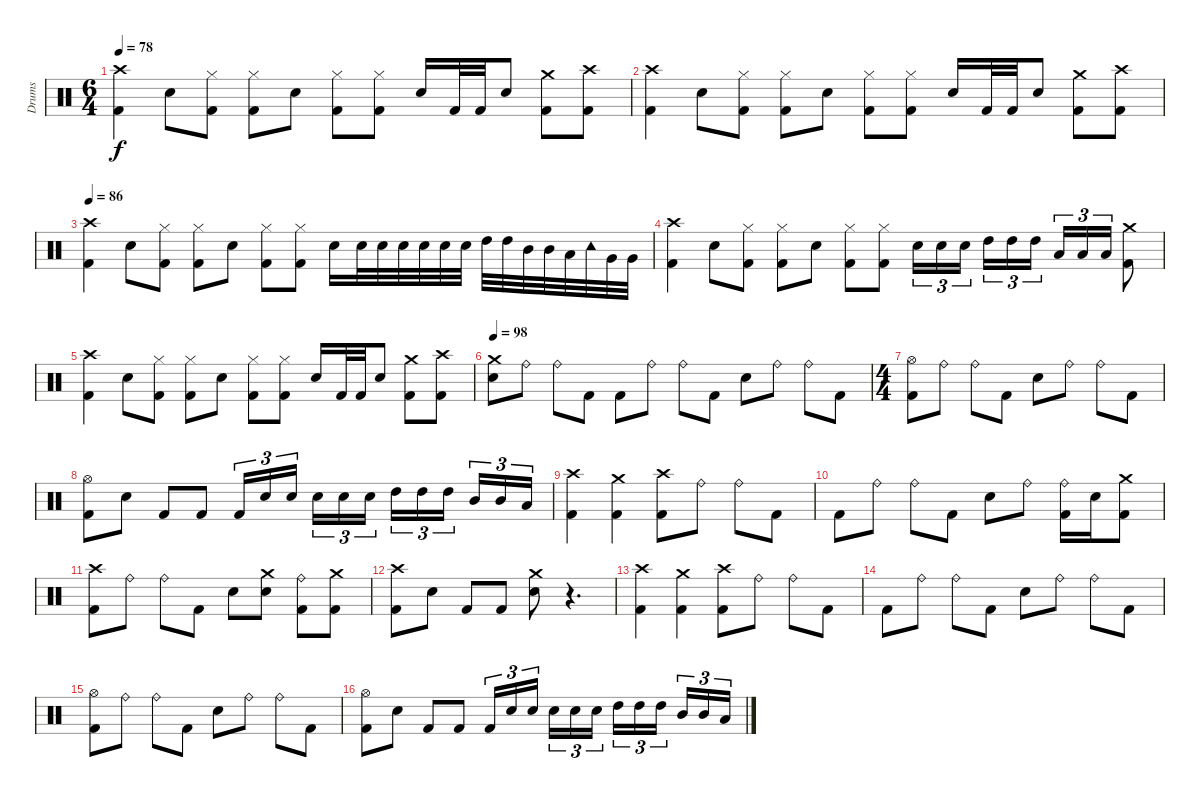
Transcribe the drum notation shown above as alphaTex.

\track ("Drums" "Drums") {instrument percussion}
\staff {score}
\articulation defaults
\ts (6 4)
\tempo 78
\clef neutral
\ks c
("Kick (hit) 2" "Crash high (hit)").4{dy f} "Snare (hit) 2".8 ("Kick (hit) 2" "Hi-Hat (closed)").8 ("Kick (hit) 2" "Hi-Hat (closed)").8 "Snare (hit) 2".8 ("Kick (hit) 2" "Hi-Hat (closed)").8 ("Kick (hit) 2" "Hi-Hat (closed)").8 "Snare (hit) 2".16 "Kick (hit) 2".32 "Kick (hit) 2".32 "Snare (hit) 2".8 ("Kick (hit) 2" "Crash medium (hit)").8 ("Kick (hit) 2" "Crash high (hit)").8 |
("Kick (hit) 2" "Crash high (hit)").4 "Snare (hit) 2".8 ("Kick (hit) 2" "Hi-Hat (closed)").8 ("Kick (hit) 2" "Hi-Hat (closed)").8 "Snare (hit) 2".8 ("Kick (hit) 2" "Hi-Hat (closed)").8 ("Kick (hit) 2" "Hi-Hat (closed)").8 "Snare (hit) 2".16 "Kick (hit) 2".32 "Kick (hit) 2".32 "Snare (hit) 2".8 ("Kick (hit) 2" "Crash medium (hit)").8 ("Kick (hit) 2" "Crash high (hit)").8 |
\tempo 86
("Kick (hit) 2" "Crash high (hit)").4 "Snare (hit) 2".8 ("Kick (hit) 2" "Hi-Hat (closed)").8 ("Kick (hit) 2" "Hi-Hat (closed)").8 "Snare (hit) 2".8 ("Kick (hit) 2" "Hi-Hat (closed)").8 ("Kick (hit) 2" "Hi-Hat (closed)").8 "Snare (hit) 2".16 "Snare (hit) 2".32 "Snare (hit) 2".32 "Snare (hit) 2".32 "Snare (hit) 2".32 "Snare (hit) 2".32 "Snare (hit) 2".32 "High Tom (hit)".32 "High Tom (hit)".32 "Mid Tom (hit)".32 "Mid Tom (hit)".32 "Low Tom (hit)".32 "Tambourine (hit)".32 "Very Low Tom (hit)".32 "Very Low Tom (hit)".32 |
("Kick (hit) 2" "Crash high (hit)").4 "Snare (hit) 2".8 ("Kick (hit) 2" "Hi-Hat (closed)").8 ("Kick (hit) 2" "Hi-Hat (closed)").8 "Snare (hit) 2".8 ("Kick (hit) 2" "Hi-Hat (closed)").8 ("Kick (hit) 2" "Hi-Hat (closed)").8 "Snare (hit) 2".16{tu (3 2)} "Snare (hit) 2".16{tu (3 2)} "Snare (hit) 2".16{tu (3 2)} "High Tom (hit)".16{tu (3 2)} "High Tom (hit)".16{tu (3 2)} "High Tom (hit)".16{tu (3 2)} "Low Tom (hit)".16{tu (3 2)} "Low Tom (hit)".16{tu (3 2)} "Low Tom (hit)".16{tu (3 2)} ("Kick (hit) 2" "Crash medium (hit)").8 |
("Kick (hit) 2" "Crash high (hit)").4 "Snare (hit) 2".8 ("Kick (hit) 2" "Hi-Hat (closed)").8 ("Kick (hit) 2" "Hi-Hat (closed)").8 "Snare (hit) 2".8 ("Kick (hit) 2" "Hi-Hat (closed)").8 ("Kick (hit) 2" "Hi-Hat (closed)").8 "Snare (hit) 2".16 "Kick (hit) 2".32 "Kick (hit) 2".32 "Snare (hit) 2".8 ("Kick (hit) 2" "Crash medium (hit)").8 ("Kick (hit) 2" "Crash high (hit)").8 |
\tempo 98
("Snare (hit) 2" "Crash medium (hit)").8 "Ride (bell)".8 "Ride (bell)".8 "Kick (hit) 2".8 "Kick (hit) 2".8 "Ride (bell)".8 "Ride (bell)".8 "Kick (hit) 2".8 "Snare (hit) 2".8 "Ride (bell)".8 "Ride (bell)".8 "Kick (hit) 2".8 |
\ts (4 4)
("Kick (hit) 2" "Hi-Hat (open)").8 "Ride (bell)".8 "Ride (bell)".8 "Kick (hit) 2".8 "Snare (hit) 2".8 "Ride (bell)".8 "Ride (bell)".8 "Kick (hit) 2".8 |
("Kick (hit) 2" "Hi-Hat (open)").8 "Snare (hit) 2".8 "Kick (hit) 2".8 "Kick (hit) 2".8 "Kick (hit) 2".16{tu (3 2)} "Snare (hit) 2".16{tu (3 2)} "Snare (hit) 2".16{tu (3 2)} "Snare (hit) 2".16{tu (3 2)} "Snare (hit) 2".16{tu (3 2)} "Snare (hit) 2".16{tu (3 2)} "High Tom (hit)".16{tu (3 2)} "High Tom (hit)".16{tu (3 2)} "High Tom (hit)".16{tu (3 2)} "Mid Tom (hit)".16{tu (3 2)} "Mid Tom (hit)".16{tu (3 2)} "Low Tom (hit)".16{tu (3 2)} |
("Kick (hit) 2" "Crash high (hit)").4 ("Kick (hit) 2" "Crash medium (hit)").4 ("Kick (hit) 2" "Crash high (hit)").8 "Ride (bell)".8 "Ride (bell)".8 "Kick (hit) 2".8 |
"Kick (hit) 2".8 "Ride (bell)".8 "Ride (bell)".8 "Kick (hit) 2".8 "Snare (hit) 2".8 "Ride (bell)".8 ("Kick (hit) 2" "Ride (bell)").16 "Snare (hit) 2".16 ("Kick (hit) 2" "Crash medium (hit)").8 |
("Kick (hit) 2" "Crash high (hit)").8 "Ride (bell)".8 "Ride (bell)".8 "Kick (hit) 2".8 "Snare (hit) 2".8 ("Snare (hit) 2" "Crash medium (hit)").8 ("Kick (hit) 2" "Ride (bell)").8 ("Kick (hit) 2" "Crash medium (hit)").8 |
("Kick (hit) 2" "Crash high (hit)").8 "Snare (hit) 2".8 "Kick (hit) 2".8 "Kick (hit) 2".8 ("Snare (hit) 2" "Crash medium (hit)").8 r.4{d} |
("Kick (hit) 2" "Crash high (hit)").4 ("Kick (hit) 2" "Crash medium (hit)").4 ("Kick (hit) 2" "Crash high (hit)").8 "Ride (bell)".8 "Ride (bell)".8 "Kick (hit) 2".8 |
"Kick (hit) 2".8 "Ride (bell)".8 "Ride (bell)".8 "Kick (hit) 2".8 "Snare (hit) 2".8 "Ride (bell)".8 "Ride (bell)".8 "Kick (hit) 2".8 |
("Kick (hit) 2" "Hi-Hat (open)").8 "Ride (bell)".8 "Ride (bell)".8 "Kick (hit) 2".8 "Snare (hit) 2".8 "Ride (bell)".8 "Ride (bell)".8 "Kick (hit) 2".8 |
("Kick (hit) 2" "Hi-Hat (open)").8 "Snare (hit) 2".8 "Kick (hit) 2".8 "Kick (hit) 2".8 "Kick (hit) 2".16{tu (3 2)} "Snare (hit) 2".16{tu (3 2)} "Snare (hit) 2".16{tu (3 2)} "Snare (hit) 2".16{tu (3 2)} "Snare (hit) 2".16{tu (3 2)} "Snare (hit) 2".16{tu (3 2)} "High Tom (hit)".16{tu (3 2)} "High Tom (hit)".16{tu (3 2)} "High Tom (hit)".16{tu (3 2)} "Mid Tom (hit)".16{tu (3 2)} "Mid Tom (hit)".16{tu (3 2)} "Low Tom (hit)".16{tu (3 2)}
